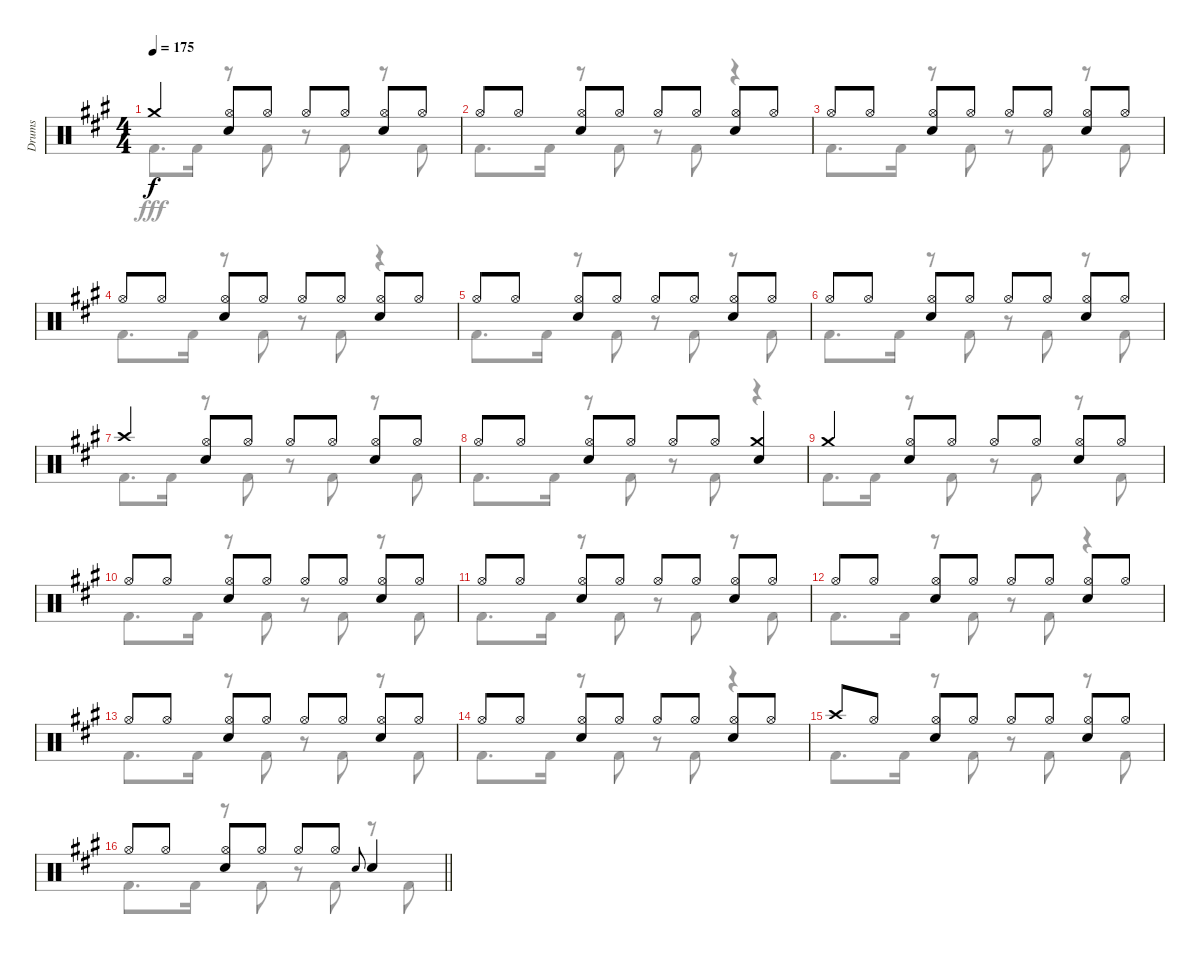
\track ("Drums" "Drums") {instrument percussion}
\staff {score}
\articulation defaults
\voice
\ts (4 4)
\tempo 175
\clef neutral
\ks a "Crash medium (hit)".4{dy f}
("Hi-Hat (open)" "Snare (hit) 2").8 "Hi-Hat (open)".8 "Hi-Hat (open)".8 "Hi-Hat (open)".8 ("Hi-Hat (open)" "Snare (hit) 2").8 "Hi-Hat (open)".8 |
"Hi-Hat (open)".8 "Hi-Hat (open)".8 ("Hi-Hat (open)" "Snare (hit) 2").8 "Hi-Hat (open)".8 "Hi-Hat (open)".8 "Hi-Hat (open)".8 ("Hi-Hat (open)" "Snare (hit) 2").8 "Hi-Hat (open)".8 |
"Hi-Hat (open)".8 "Hi-Hat (open)".8 ("Hi-Hat (open)" "Snare (hit) 2").8 "Hi-Hat (open)".8 "Hi-Hat (open)".8 "Hi-Hat (open)".8 ("Hi-Hat (open)" "Snare (hit) 2").8 "Hi-Hat (open)".8 |
"Hi-Hat (open)".8 "Hi-Hat (open)".8 ("Hi-Hat (open)" "Snare (hit) 2").8 "Hi-Hat (open)".8 "Hi-Hat (open)".8 "Hi-Hat (open)".8 ("Hi-Hat (open)" "Snare (hit) 2").8 "Hi-Hat (open)".8 |
"Hi-Hat (open)".8 "Hi-Hat (open)".8 ("Hi-Hat (open)" "Snare (hit) 2").8 "Hi-Hat (open)".8 "Hi-Hat (open)".8 "Hi-Hat (open)".8 ("Hi-Hat (open)" "Snare (hit) 2").8 "Hi-Hat (open)".8 |
"Hi-Hat (open)".8 "Hi-Hat (open)".8 ("Hi-Hat (open)" "Snare (hit) 2").8 "Hi-Hat (open)".8 "Hi-Hat (open)".8 "Hi-Hat (open)".8 ("Hi-Hat (open)" "Snare (hit) 2").8 "Hi-Hat (open)".8 |
"Crash high (hit)".4 ("Hi-Hat (open)" "Snare (hit) 2").8 "Hi-Hat (open)".8 "Hi-Hat (open)".8 "Hi-Hat (open)".8 ("Hi-Hat (open)" "Snare (hit) 2").8 "Hi-Hat (open)".8 |
"Hi-Hat (open)".8 "Hi-Hat (open)".8 ("Hi-Hat (open)" "Snare (hit) 2").8 "Hi-Hat (open)".8 "Hi-Hat (open)".8 "Hi-Hat (open)".8 ("Crash medium (hit)" "Snare (hit) 2").4 |
"Crash medium (hit)".4 ("Hi-Hat (open)" "Snare (hit) 2").8 "Hi-Hat (open)".8 "Hi-Hat (open)".8 "Hi-Hat (open)".8 ("Hi-Hat (open)" "Snare (hit) 2").8 "Hi-Hat (open)".8 |
"Hi-Hat (open)".8 "Hi-Hat (open)".8 ("Hi-Hat (open)" "Snare (hit) 2").8 "Hi-Hat (open)".8 "Hi-Hat (open)".8 "Hi-Hat (open)".8 ("Hi-Hat (open)" "Snare (hit) 2").8 "Hi-Hat (open)".8 |
"Hi-Hat (open)".8 "Hi-Hat (open)".8 ("Hi-Hat (open)" "Snare (hit) 2").8 "Hi-Hat (open)".8 "Hi-Hat (open)".8 "Hi-Hat (open)".8 ("Hi-Hat (open)" "Snare (hit) 2").8 "Hi-Hat (open)".8 |
"Hi-Hat (open)".8 "Hi-Hat (open)".8 ("Hi-Hat (open)" "Snare (hit) 2").8 "Hi-Hat (open)".8 "Hi-Hat (open)".8 "Hi-Hat (open)".8 ("Hi-Hat (open)" "Snare (hit) 2").8 "Hi-Hat (open)".8 |
"Hi-Hat (open)".8 "Hi-Hat (open)".8 ("Hi-Hat (open)" "Snare (hit) 2").8 "Hi-Hat (open)".8 "Hi-Hat (open)".8 "Hi-Hat (open)".8 ("Hi-Hat (open)" "Snare (hit) 2").8 "Hi-Hat (open)".8 |
"Hi-Hat (open)".8 "Hi-Hat (open)".8 ("Hi-Hat (open)" "Snare (hit) 2").8 "Hi-Hat (open)".8 "Hi-Hat (open)".8 "Hi-Hat (open)".8 ("Hi-Hat (open)" "Snare (hit) 2").8 "Hi-Hat (open)".8 |
"Crash high (hit)".8 "Hi-Hat (open)".8 ("Hi-Hat (open)" "Snare (hit) 2").8 "Hi-Hat (open)".8 "Hi-Hat (open)".8 "Hi-Hat (open)".8 ("Hi-Hat (open)" "Snare (hit) 2").8 "Hi-Hat (open)".8 |
\barLineRight lightlight "Hi-Hat (open)".8 "Hi-Hat (open)".8
("Hi-Hat (open)" "Snare (hit) 2").8 "Hi-Hat (open)".8 "Hi-Hat (open)".8 "Hi-Hat (open)".8 "Snare (hit) 2".8{gr onbeat} "Snare (hit) 2".4
\voice
\clef neutral
\ottava regular
\simile none
\ks a "Kick (hit) 2".8{d dy fff} "Kick (hit) 2".16
r.8 "Kick (hit) 2".8 r.8 "Kick (hit) 2".8 r.8 "Kick (hit) 2".8 |
"Kick (hit) 2".8{d} "Kick (hit) 2".16 r.8 "Kick (hit) 2".8 r.8 "Kick (hit) 2".8 r.4 |
"Kick (hit) 2".8{d} "Kick (hit) 2".16 r.8 "Kick (hit) 2".8 r.8 "Kick (hit) 2".8 r.8 "Kick (hit) 2".8 |
"Kick (hit) 2".8{d} "Kick (hit) 2".16 r.8 "Kick (hit) 2".8 r.8 "Kick (hit) 2".8 r.4 |
"Kick (hit) 2".8{d} "Kick (hit) 2".16 r.8 "Kick (hit) 2".8 r.8 "Kick (hit) 2".8 r.8 "Kick (hit) 2".8 |
"Kick (hit) 2".8{d} "Kick (hit) 2".16 r.8 "Kick (hit) 2".8 r.8 "Kick (hit) 2".8 r.8 "Kick (hit) 2".8 |
"Kick (hit) 2".8{d} "Kick (hit) 2".16 r.8 "Kick (hit) 2".8 r.8 "Kick (hit) 2".8 r.8 "Kick (hit) 2".8 |
"Kick (hit) 2".8{d} "Kick (hit) 2".16 r.8 "Kick (hit) 2".8 r.8 "Kick (hit) 2".8 r.4 |
"Kick (hit) 2".8{d} "Kick (hit) 2".16 r.8 "Kick (hit) 2".8 r.8 "Kick (hit) 2".8 r.8 "Kick (hit) 2".8 |
"Kick (hit) 2".8{d} "Kick (hit) 2".16 r.8 "Kick (hit) 2".8 r.8 "Kick (hit) 2".8 r.8 "Kick (hit) 2".8 |
"Kick (hit) 2".8{d} "Kick (hit) 2".16 r.8 "Kick (hit) 2".8 r.8 "Kick (hit) 2".8 r.8 "Kick (hit) 2".8 |
"Kick (hit) 2".8{d} "Kick (hit) 2".16 r.8 "Kick (hit) 2".8 r.8 "Kick (hit) 2".8 r.4 |
"Kick (hit) 2".8{d} "Kick (hit) 2".16 r.8 "Kick (hit) 2".8 r.8 "Kick (hit) 2".8 r.8 "Kick (hit) 2".8 |
"Kick (hit) 2".8{d} "Kick (hit) 2".16 r.8 "Kick (hit) 2".8 r.8 "Kick (hit) 2".8 r.4 |
"Kick (hit) 2".8{d} "Kick (hit) 2".16 r.8 "Kick (hit) 2".8 r.8 "Kick (hit) 2".8 r.8 "Kick (hit) 2".8 |
\barLineRight lightlight "Kick (hit) 2".8{d} "Kick (hit) 2".16
r.8 "Kick (hit) 2".8 r.8 "Kick (hit) 2".8 r.8 "Kick (hit) 2".8
